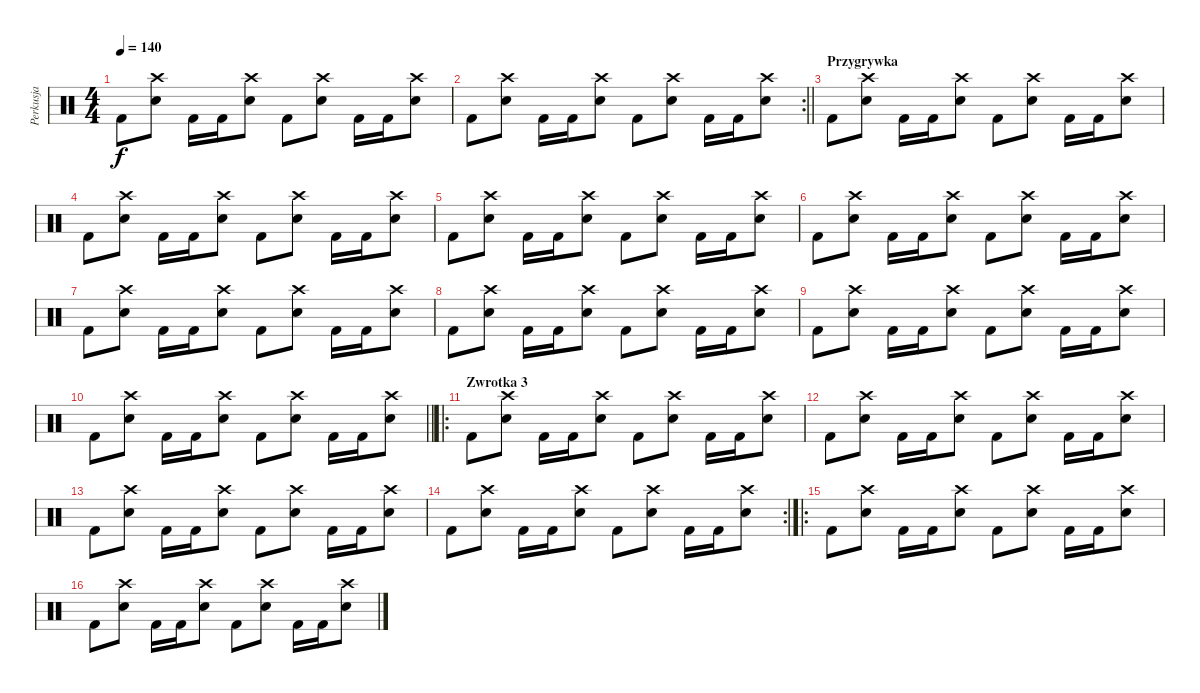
\track ("Perkusja" "Perkusja") {instrument percussion}
\staff {score}
\articulation defaults
\ts (4 4)
\tempo 140
\clef neutral
\ks c "Kick (hit) 2".8{dy f}
("Crash high (hit)" "Snare (hit) 2").8 "Kick (hit) 2".16 "Kick (hit) 2".16 ("Crash high (hit)" "Snare (hit) 2").8 "Kick (hit) 2".8 ("Crash high (hit)" "Snare (hit) 2").8 "Kick (hit) 2".16 "Kick (hit) 2".16 ("Crash high (hit)" "Snare (hit) 2").8 |
\rc 2
\barLineRight lightlight "Kick (hit) 2".8
("Crash high (hit)" "Snare (hit) 2").8 "Kick (hit) 2".16 "Kick (hit) 2".16 ("Crash high (hit)" "Snare (hit) 2").8 "Kick (hit) 2".8 ("Crash high (hit)" "Snare (hit) 2").8 "Kick (hit) 2".16 "Kick (hit) 2".16 ("Crash high (hit)" "Snare (hit) 2").8 |
\section ("" "Przygrywka")
"Kick (hit) 2".8 ("Crash high (hit)" "Snare (hit) 2").8 "Kick (hit) 2".16 "Kick (hit) 2".16 ("Crash high (hit)" "Snare (hit) 2").8 "Kick (hit) 2".8 ("Crash high (hit)" "Snare (hit) 2").8 "Kick (hit) 2".16 "Kick (hit) 2".16 ("Crash high (hit)" "Snare (hit) 2").8 |
"Kick (hit) 2".8 ("Crash high (hit)" "Snare (hit) 2").8 "Kick (hit) 2".16 "Kick (hit) 2".16 ("Crash high (hit)" "Snare (hit) 2").8 "Kick (hit) 2".8 ("Crash high (hit)" "Snare (hit) 2").8 "Kick (hit) 2".16 "Kick (hit) 2".16 ("Crash high (hit)" "Snare (hit) 2").8 |
"Kick (hit) 2".8 ("Crash high (hit)" "Snare (hit) 2").8 "Kick (hit) 2".16 "Kick (hit) 2".16 ("Crash high (hit)" "Snare (hit) 2").8 "Kick (hit) 2".8 ("Crash high (hit)" "Snare (hit) 2").8 "Kick (hit) 2".16 "Kick (hit) 2".16 ("Crash high (hit)" "Snare (hit) 2").8 |
"Kick (hit) 2".8 ("Crash high (hit)" "Snare (hit) 2").8 "Kick (hit) 2".16 "Kick (hit) 2".16 ("Crash high (hit)" "Snare (hit) 2").8 "Kick (hit) 2".8 ("Crash high (hit)" "Snare (hit) 2").8 "Kick (hit) 2".16 "Kick (hit) 2".16 ("Crash high (hit)" "Snare (hit) 2").8 |
"Kick (hit) 2".8 ("Crash high (hit)" "Snare (hit) 2").8 "Kick (hit) 2".16 "Kick (hit) 2".16 ("Crash high (hit)" "Snare (hit) 2").8 "Kick (hit) 2".8 ("Crash high (hit)" "Snare (hit) 2").8 "Kick (hit) 2".16 "Kick (hit) 2".16 ("Crash high (hit)" "Snare (hit) 2").8 |
"Kick (hit) 2".8 ("Crash high (hit)" "Snare (hit) 2").8 "Kick (hit) 2".16 "Kick (hit) 2".16 ("Crash high (hit)" "Snare (hit) 2").8 "Kick (hit) 2".8 ("Crash high (hit)" "Snare (hit) 2").8 "Kick (hit) 2".16 "Kick (hit) 2".16 ("Crash high (hit)" "Snare (hit) 2").8 |
"Kick (hit) 2".8 ("Crash high (hit)" "Snare (hit) 2").8 "Kick (hit) 2".16 "Kick (hit) 2".16 ("Crash high (hit)" "Snare (hit) 2").8 "Kick (hit) 2".8 ("Crash high (hit)" "Snare (hit) 2").8 "Kick (hit) 2".16 "Kick (hit) 2".16 ("Crash high (hit)" "Snare (hit) 2").8 |
\barLineRight lightlight "Kick (hit) 2".8
("Crash high (hit)" "Snare (hit) 2").8 "Kick (hit) 2".16 "Kick (hit) 2".16 ("Crash high (hit)" "Snare (hit) 2").8 "Kick (hit) 2".8 ("Crash high (hit)" "Snare (hit) 2").8 "Kick (hit) 2".16 "Kick (hit) 2".16 ("Crash high (hit)" "Snare (hit) 2").8 |
\ro
\section ("" "Zwrotka 3")
"Kick (hit) 2".8 ("Crash high (hit)" "Snare (hit) 2").8 "Kick (hit) 2".16 "Kick (hit) 2".16 ("Crash high (hit)" "Snare (hit) 2").8 "Kick (hit) 2".8 ("Crash high (hit)" "Snare (hit) 2").8 "Kick (hit) 2".16 "Kick (hit) 2".16 ("Crash high (hit)" "Snare (hit) 2").8 |
"Kick (hit) 2".8 ("Crash high (hit)" "Snare (hit) 2").8 "Kick (hit) 2".16 "Kick (hit) 2".16 ("Crash high (hit)" "Snare (hit) 2").8 "Kick (hit) 2".8 ("Crash high (hit)" "Snare (hit) 2").8 "Kick (hit) 2".16 "Kick (hit) 2".16 ("Crash high (hit)" "Snare (hit) 2").8 |
"Kick (hit) 2".8 ("Crash high (hit)" "Snare (hit) 2").8 "Kick (hit) 2".16 "Kick (hit) 2".16 ("Crash high (hit)" "Snare (hit) 2").8 "Kick (hit) 2".8 ("Crash high (hit)" "Snare (hit) 2").8 "Kick (hit) 2".16 "Kick (hit) 2".16 ("Crash high (hit)" "Snare (hit) 2").8 |
\rc 2 "Kick (hit) 2".8
("Crash high (hit)" "Snare (hit) 2").8 "Kick (hit) 2".16 "Kick (hit) 2".16 ("Crash high (hit)" "Snare (hit) 2").8 "Kick (hit) 2".8 ("Crash high (hit)" "Snare (hit) 2").8 "Kick (hit) 2".16 "Kick (hit) 2".16 ("Crash high (hit)" "Snare (hit) 2").8 |
\ro "Kick (hit) 2".8
("Crash high (hit)" "Snare (hit) 2").8 "Kick (hit) 2".16 "Kick (hit) 2".16 ("Crash high (hit)" "Snare (hit) 2").8 "Kick (hit) 2".8 ("Crash high (hit)" "Snare (hit) 2").8 "Kick (hit) 2".16 "Kick (hit) 2".16 ("Crash high (hit)" "Snare (hit) 2").8 |
"Kick (hit) 2".8 ("Crash high (hit)" "Snare (hit) 2").8 "Kick (hit) 2".16 "Kick (hit) 2".16 ("Crash high (hit)" "Snare (hit) 2").8 "Kick (hit) 2".8 ("Crash high (hit)" "Snare (hit) 2").8 "Kick (hit) 2".16 "Kick (hit) 2".16 ("Crash high (hit)" "Snare (hit) 2").8
